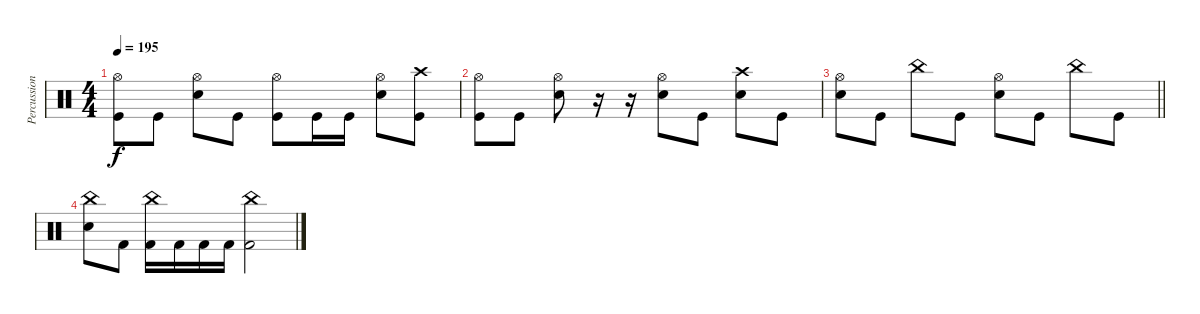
\track ("Percussions" "Percussion") {instrument percussion}
\staff {score}
\articulation defaults
\ts (4 4)
\tempo 195
\clef neutral
\ks c
("Hi-Hat (open)" "Kick (hit)").8{dy f} "Kick (hit)".8 ("Hi-Hat (open)" "Electric Snare (hit)").8 "Kick (hit)".8 ("Hi-Hat (open)" "Kick (hit)").8 "Kick (hit)".16 "Kick (hit)".16 ("Hi-Hat (open)" "Electric Snare (hit)").8 ("Crash high (hit)" "Kick (hit)").8 |
("Hi-Hat (open)" "Kick (hit)").8 "Kick (hit)".8 ("Hi-Hat (open)" "Electric Snare (hit)").8 r.16 r.16 ("Hi-Hat (open)" "Electric Snare (hit)").8 "Kick (hit)".8 ("Crash high (hit)" "Electric Snare (hit)").8 "Kick (hit)".8 |
\barLineRight lightlight
("Hi-Hat (open)" "Electric Snare (hit)").8 "Kick (hit)".8 "China (hit)".8 "Kick (hit)".8 ("Hi-Hat (open)" "Electric Snare (hit)").8 "Kick (hit)".8 "China (hit)".8 "Kick (hit)".8 |
("China (hit)" "Electric Snare (hit)").8 "Kick (hit) 2".8 ("China (hit)" "Kick (hit) 2").16 "Kick (hit) 2".16 "Kick (hit) 2".16 "Kick (hit) 2".16 ("China (hit)" "Kick (hit) 2").2
